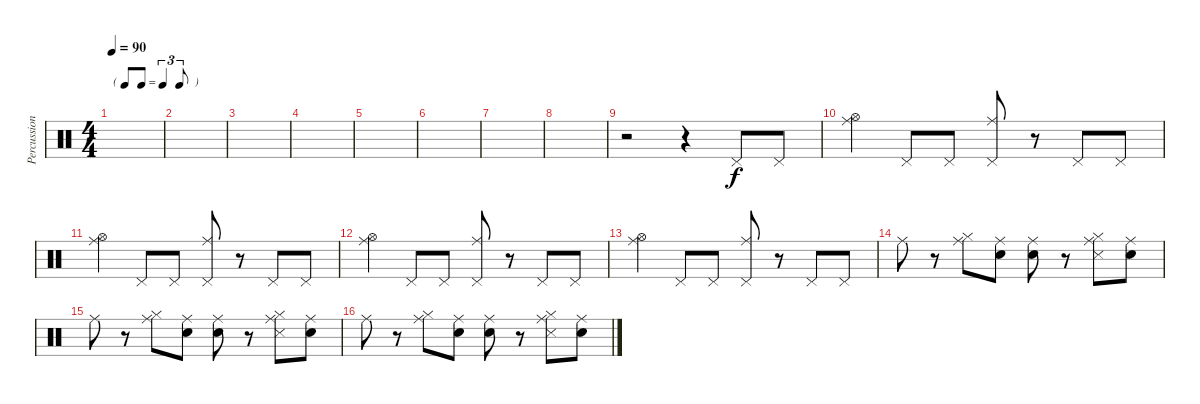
\track ("Percussion" "Percussion") {instrument percussion}
\staff {score}
\articulation defaults
\ts (4 4)
\tf triplet8th
\tempo 90
\clef neutral
\ks c
|
|
|
|
|
|
|
|
r.2 r.4 "Pedal Hi-Hat (hit)".8 "Pedal Hi-Hat (hit)".8 |
("Ride (middle)" "Hi-Hat (open)").4 "Pedal Hi-Hat (hit)".8 "Pedal Hi-Hat (hit)".8 ("Ride (middle)" "Pedal Hi-Hat (hit)").8 r.8 "Pedal Hi-Hat (hit)".8 "Pedal Hi-Hat (hit)".8 |
("Ride (middle)" "Hi-Hat (open)").4 "Pedal Hi-Hat (hit)".8 "Pedal Hi-Hat (hit)".8 ("Ride (middle)" "Pedal Hi-Hat (hit)").8 r.8 "Pedal Hi-Hat (hit)".8 "Pedal Hi-Hat (hit)".8 |
("Ride (middle)" "Hi-Hat (open)").4 "Pedal Hi-Hat (hit)".8 "Pedal Hi-Hat (hit)".8 ("Ride (middle)" "Pedal Hi-Hat (hit)").8 r.8 "Pedal Hi-Hat (hit)".8 "Pedal Hi-Hat (hit)".8 |
("Ride (middle)" "Hi-Hat (open)").4 "Pedal Hi-Hat (hit)".8 "Pedal Hi-Hat (hit)".8 ("Ride (middle)" "Pedal Hi-Hat (hit)").8 r.8 "Pedal Hi-Hat (hit)".8 "Pedal Hi-Hat (hit)".8 |
"Ride (middle)".8 r.8 ("Hi-Hat (closed)" "Ride (middle)").8 ("Snare (hit)" "Ride (middle)").8 ("Snare (hit)" "Ride (middle)").8 r.8 ("Hi-Hat (closed)" "Snare (side stick) 3" "Ride (middle)").8 ("Snare (hit)" "Ride (middle)").8 |
"Ride (middle)".8 r.8 ("Hi-Hat (closed)" "Ride (middle)").8 ("Snare (hit)" "Ride (middle)").8 ("Snare (hit)" "Ride (middle)").8 r.8 ("Hi-Hat (closed)" "Snare (side stick) 3" "Ride (middle)").8 ("Snare (hit)" "Ride (middle)").8 |
"Ride (middle)".8 r.8 ("Hi-Hat (closed)" "Ride (middle)").8 ("Snare (hit)" "Ride (middle)").8 ("Snare (hit)" "Ride (middle)").8 r.8 ("Hi-Hat (closed)" "Snare (side stick) 3" "Ride (middle)").8 ("Snare (hit)" "Ride (middle)").8
